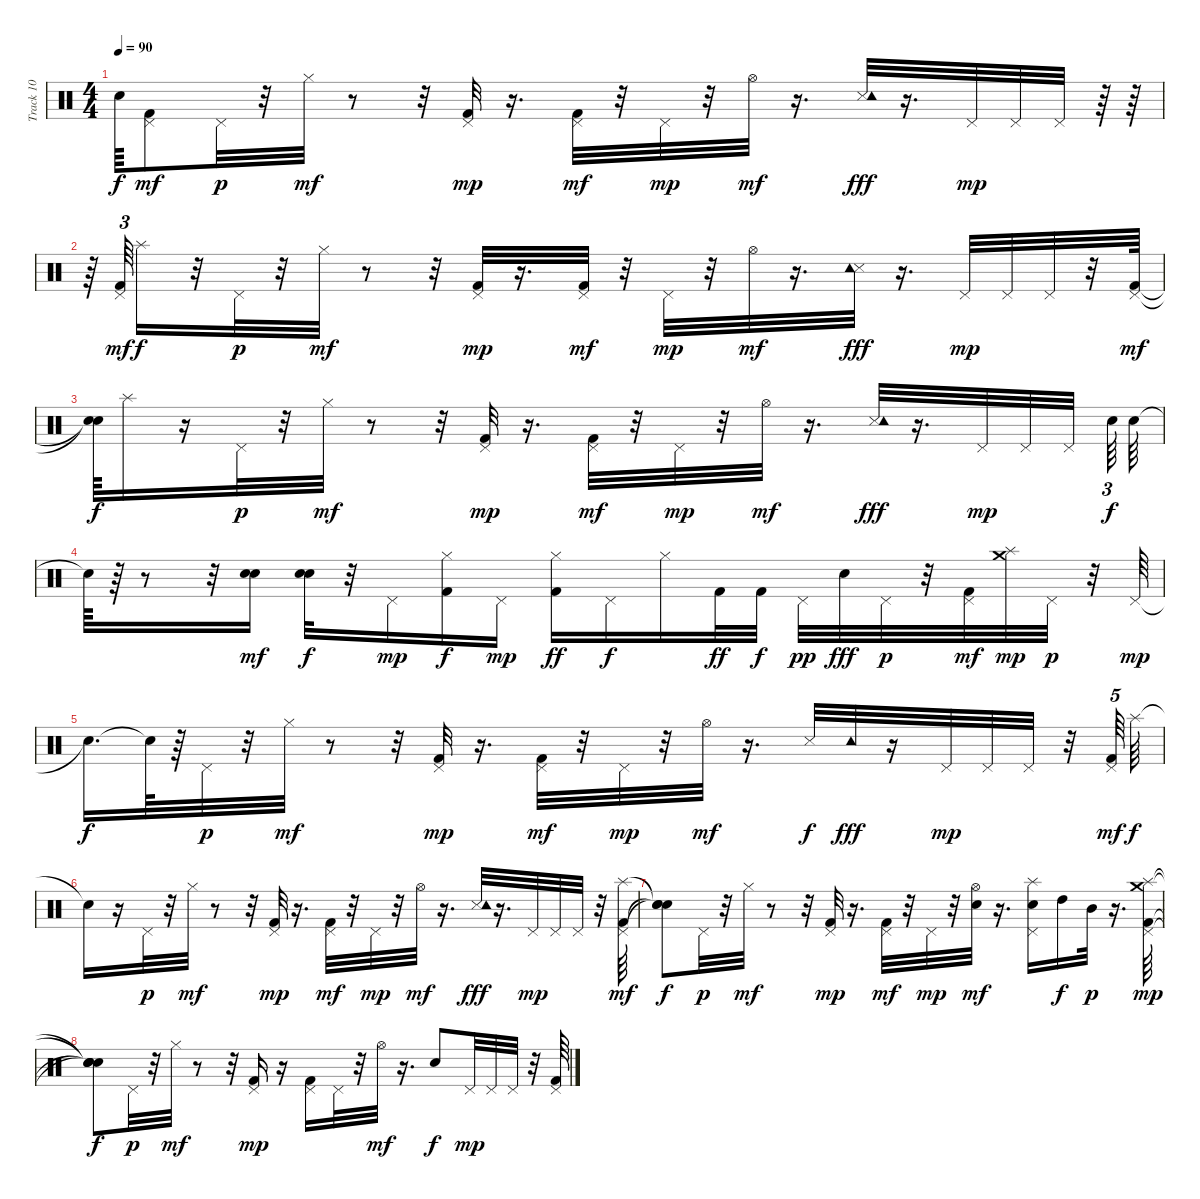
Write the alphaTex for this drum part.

\track ("Track 10" "Track 10") {instrument percussion}
\staff {score}
\articulation defaults
\ts (4 4)
\tempo 90
\clef neutral
\ks c "Snare (hit)"{t}.64{dy f}
("Pedal Hi-Hat (hit)" "Kick (hit) 2").8{dy mf} "Pedal Hi-Hat (hit)".32{dy p} r.32 "Hi-Hat (closed)".32{dy mf} r.8 r.32 ("Pedal Hi-Hat (hit)" "Kick (hit) 2").32{dy mp} r.16{d} ("Pedal Hi-Hat (hit)" "Kick (hit) 2").32{dy mf} r.32 "Pedal Hi-Hat (hit)".32{dy mp} r.32 "Hi-Hat (open)".32{dy mf} r.16{d} ("Snare (side stick) 3" "Tambourine (hit)").32{dy fff} r.16{d} "Pedal Hi-Hat (hit)".32{dy mp} "Pedal Hi-Hat (hit)".32 "Pedal Hi-Hat (hit)".32 r.64 r.64 |
r.64 ("Pedal Hi-Hat (hit)" "Kick (hit) 2").64{tu (3 2) dy mf} "Splash (hit)".16{dy f} r.32 "Pedal Hi-Hat (hit)".32{dy p} r.32 "Hi-Hat (closed)".32{dy mf} r.8 r.32 ("Pedal Hi-Hat (hit)" "Kick (hit) 2").32{dy mp} r.16{d} ("Pedal Hi-Hat (hit)" "Kick (hit) 2").32{dy mf} r.32 "Pedal Hi-Hat (hit)".32{dy mp} r.32 "Hi-Hat (open)".32{dy mf} r.16{d} ("Snare (side stick) 3" "Tambourine (hit)").32{dy fff} r.16{d} "Pedal Hi-Hat (hit)".32{dy mp} "Pedal Hi-Hat (hit)".32 "Pedal Hi-Hat (hit)".32 r.32 ("Pedal Hi-Hat (hit)" "Kick (hit) 2").64{dy mf} |
("Snare (hit)"{t} "Snare (hit)"{t}).64{dy f} "Splash (hit)".16 r.16 "Pedal Hi-Hat (hit)".32{dy p} r.32 "Hi-Hat (closed)".32{dy mf} r.8 r.32 ("Pedal Hi-Hat (hit)" "Kick (hit) 2").32{dy mp} r.16{d} ("Pedal Hi-Hat (hit)" "Kick (hit) 2").32{dy mf} r.32 "Pedal Hi-Hat (hit)".32{dy mp} r.32 "Hi-Hat (open)".32{dy mf} r.16{d} ("Snare (side stick) 3" "Tambourine (hit)").32{dy fff} r.16{d} "Pedal Hi-Hat (hit)".32{dy mp} "Pedal Hi-Hat (hit)".32 "Pedal Hi-Hat (hit)".32{beam splitsecondary} "Snare (hit) 2".64{tu (3 2) dy f} "Electric Snare (hit)".64 |
"Snare (hit)"{t}.64 r.64 r.8 r.32 ("Snare (hit) 2" "Electric Snare (hit)").16{dy mf} ("Snare (hit) 2" "Electric Snare (hit)").32{dy f} r.32 "Pedal Hi-Hat (hit)".16{dy mp} ("Hi-Hat (closed)" "Kick (hit) 2").16{dy f} "Pedal Hi-Hat (hit)".16{dy mp} ("Hi-Hat (closed)" "Kick (hit) 2").16{dy ff} "Pedal Hi-Hat (hit)".16{dy f} "Hi-Hat (closed)".16 "Kick (hit) 2".32{dy ff} "Kick (hit) 2".32{dy f} "Pedal Hi-Hat (hit)".32{dy pp} "Snare (hit) 2".32{dy fff} "Pedal Hi-Hat (hit)".32{dy p} r.32 ("Pedal Hi-Hat (hit)" "Kick (hit) 2").32{dy mf} ("Splash (hit)" "Crash medium (hit)").32{dy mp} "Pedal Hi-Hat (hit)".32{dy p} r.32 "Pedal Hi-Hat (hit)".64{dy mp} |
"Snare (hit)"{t}.16{d dy f} "Snare (hit)"{t}.64 r.64 "Pedal Hi-Hat (hit)".32{dy p} r.32 "Hi-Hat (closed)".32{dy mf} r.8 r.32 ("Pedal Hi-Hat (hit)" "Kick (hit) 2").32{dy mp} r.16{d} ("Pedal Hi-Hat (hit)" "Kick (hit) 2").32{dy mf} r.32 "Pedal Hi-Hat (hit)".32{dy mp} r.32 "Hi-Hat (open)".32{dy mf} r.16{d} "Snare (side stick) 3".32{dy f} "Tambourine (hit)".32{dy fff} r.16 "Pedal Hi-Hat (hit)".32{dy mp} "Pedal Hi-Hat (hit)".32 "Pedal Hi-Hat (hit)".32 r.32 ("Pedal Hi-Hat (hit)" "Kick (hit) 2").64{tu (5 4) dy mf} "Splash (hit)".64{dy f} |
"Snare (hit)"{t}.16 r.16 "Pedal Hi-Hat (hit)".32{dy p} r.32 "Hi-Hat (closed)".32{dy mf} r.8 r.32 ("Pedal Hi-Hat (hit)" "Kick (hit) 2").32{dy mp} r.16{d} ("Pedal Hi-Hat (hit)" "Kick (hit) 2").32{dy mf} r.32 "Pedal Hi-Hat (hit)".32{dy mp} r.32 "Hi-Hat (open)".32{dy mf} r.16{d} ("Snare (side stick) 3" "Tambourine (hit)").32{dy fff} r.16{d} "Pedal Hi-Hat (hit)".32{dy mp} "Pedal Hi-Hat (hit)".32 "Pedal Hi-Hat (hit)".32 r.32 ("Pedal Hi-Hat (hit)" "Kick (hit) 2" "Splash (hit)").64{dy mf} |
("Snare (hit)"{t} "Snare (hit)"{t} "Snare (hit)"{t}).8{dy f} "Pedal Hi-Hat (hit)".32{dy p} r.32 "Hi-Hat (closed)".32{dy mf} r.8 r.32 ("Pedal Hi-Hat (hit)" "Kick (hit) 2").32{dy mp} r.16{d} ("Pedal Hi-Hat (hit)" "Kick (hit) 2").32{dy mf} r.32 "Pedal Hi-Hat (hit)".32{dy mp} r.32 ("Hi-Hat (open)" "Snare (hit) 2").32{dy mf} r.16{d} ("Pedal Hi-Hat (hit)" "Snare (hit) 2" "Splash (hit)").16 "High Tom (hit)".16{dy f} "Mid Tom (hit)".32{dy p} r.16{d} ("Pedal Hi-Hat (hit)" "Kick (hit) 2" "Splash (hit)" "Crash medium (hit)").64{dy mp} |
("Snare (hit)"{t} "Snare (hit)"{t} "Snare (hit)"{t} "Snare (hit)"{t}).8{dy f} "Pedal Hi-Hat (hit)".32{dy p} r.32 "Hi-Hat (closed)".32{dy mf} r.8 r.32 ("Pedal Hi-Hat (hit)" "Kick (hit) 2").16{dy mp} r.16 ("Pedal Hi-Hat (hit)" "Kick (hit) 2").16 "Pedal Hi-Hat (hit)".32 r.32 "Hi-Hat (open)".32{dy mf} r.16{d} "Snare (hit) 2".8{dy f} "Pedal Hi-Hat (hit)".32{dy mp} "Pedal Hi-Hat (hit)".32 "Pedal Hi-Hat (hit)".32 r.32 ("Pedal Hi-Hat (hit)" "Kick (hit) 2").64
